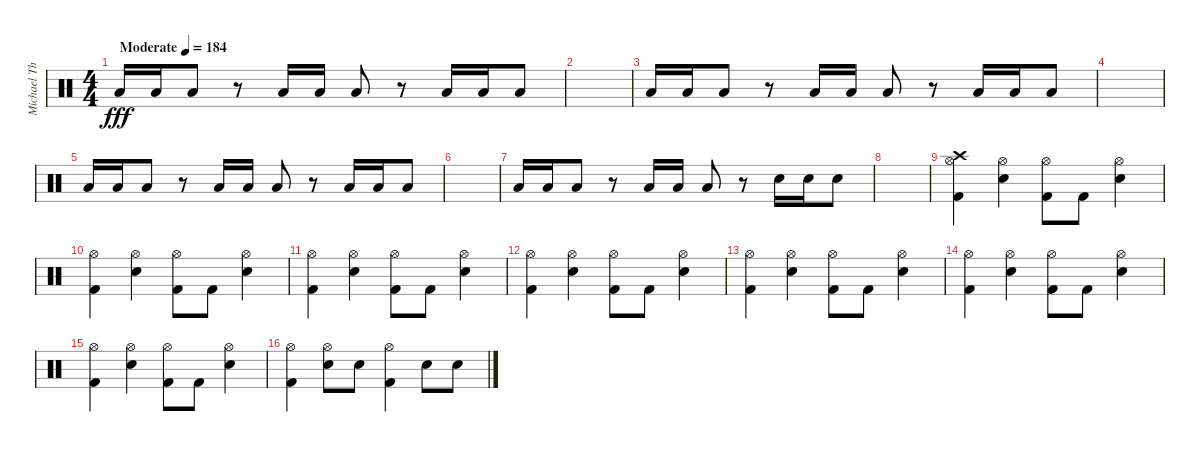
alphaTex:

\track ("Michael Thomas" "Michael Th") {instrument percussion}
\staff {score}
\articulation defaults
\ts (4 4)
\tempo (184 "Moderate")
\clef neutral
\ks c "Low Floor Tom (hit)".16{dy fff} "Low Floor Tom (hit)".16 "Low Floor Tom (hit)".8
r.8 "Low Floor Tom (hit)".16 "Low Floor Tom (hit)".16 "Low Floor Tom (hit)".8 r.8 "Low Floor Tom (hit)".16 "Low Floor Tom (hit)".16 "Low Floor Tom (hit)".8 |
|
"Low Floor Tom (hit)".16 "Low Floor Tom (hit)".16 "Low Floor Tom (hit)".8 r.8 "Low Floor Tom (hit)".16 "Low Floor Tom (hit)".16 "Low Floor Tom (hit)".8 r.8 "Low Floor Tom (hit)".16 "Low Floor Tom (hit)".16 "Low Floor Tom (hit)".8 |
|
"Low Floor Tom (hit)".16 "Low Floor Tom (hit)".16 "Low Floor Tom (hit)".8 r.8 "Low Floor Tom (hit)".16 "Low Floor Tom (hit)".16 "Low Floor Tom (hit)".8 r.8 "Low Floor Tom (hit)".16 "Low Floor Tom (hit)".16 "Low Floor Tom (hit)".8 |
|
"Low Floor Tom (hit)".16 "Low Floor Tom (hit)".16 "Low Floor Tom (hit)".8 r.8 "Low Floor Tom (hit)".16 "Low Floor Tom (hit)".16 "Low Floor Tom (hit)".8 r.8 "Snare (hit) 2".16 "Snare (hit) 2".16 "Snare (hit) 2".8 |
|
("Crash high (hit)" "Hi-Hat (open)" "Kick (hit) 2").4 ("Hi-Hat (open)" "Snare (hit) 2").4 ("Hi-Hat (open)" "Kick (hit) 2").8 "Kick (hit) 2".8 ("Hi-Hat (open)" "Snare (hit) 2").4 |
("Hi-Hat (open)" "Kick (hit) 2").4 ("Hi-Hat (open)" "Snare (hit) 2").4 ("Hi-Hat (open)" "Kick (hit) 2").8 "Kick (hit) 2".8 ("Hi-Hat (open)" "Snare (hit) 2").4 |
("Hi-Hat (open)" "Kick (hit) 2").4 ("Hi-Hat (open)" "Snare (hit) 2").4 ("Hi-Hat (open)" "Kick (hit) 2").8 "Kick (hit) 2".8 ("Hi-Hat (open)" "Snare (hit) 2").4 |
("Hi-Hat (open)" "Kick (hit) 2").4 ("Hi-Hat (open)" "Snare (hit) 2").4 ("Hi-Hat (open)" "Kick (hit) 2").8 "Kick (hit) 2".8 ("Hi-Hat (open)" "Snare (hit) 2").4 |
("Hi-Hat (open)" "Kick (hit) 2").4 ("Hi-Hat (open)" "Snare (hit) 2").4 ("Hi-Hat (open)" "Kick (hit) 2").8 "Kick (hit) 2".8 ("Hi-Hat (open)" "Snare (hit) 2").4 |
("Hi-Hat (open)" "Kick (hit) 2").4 ("Hi-Hat (open)" "Snare (hit) 2").4 ("Hi-Hat (open)" "Kick (hit) 2").8 "Kick (hit) 2".8 ("Hi-Hat (open)" "Snare (hit) 2").4 |
("Hi-Hat (open)" "Kick (hit) 2").4 ("Hi-Hat (open)" "Snare (hit) 2").4 ("Hi-Hat (open)" "Kick (hit) 2").8 "Kick (hit) 2".8 ("Hi-Hat (open)" "Snare (hit) 2").4 |
("Hi-Hat (open)" "Kick (hit) 2").4 ("Hi-Hat (open)" "Snare (hit) 2").8 "Snare (hit) 2".8 ("Hi-Hat (open)" "Kick (hit) 2").4 "Snare (hit) 2".8 "Snare (hit) 2".8
